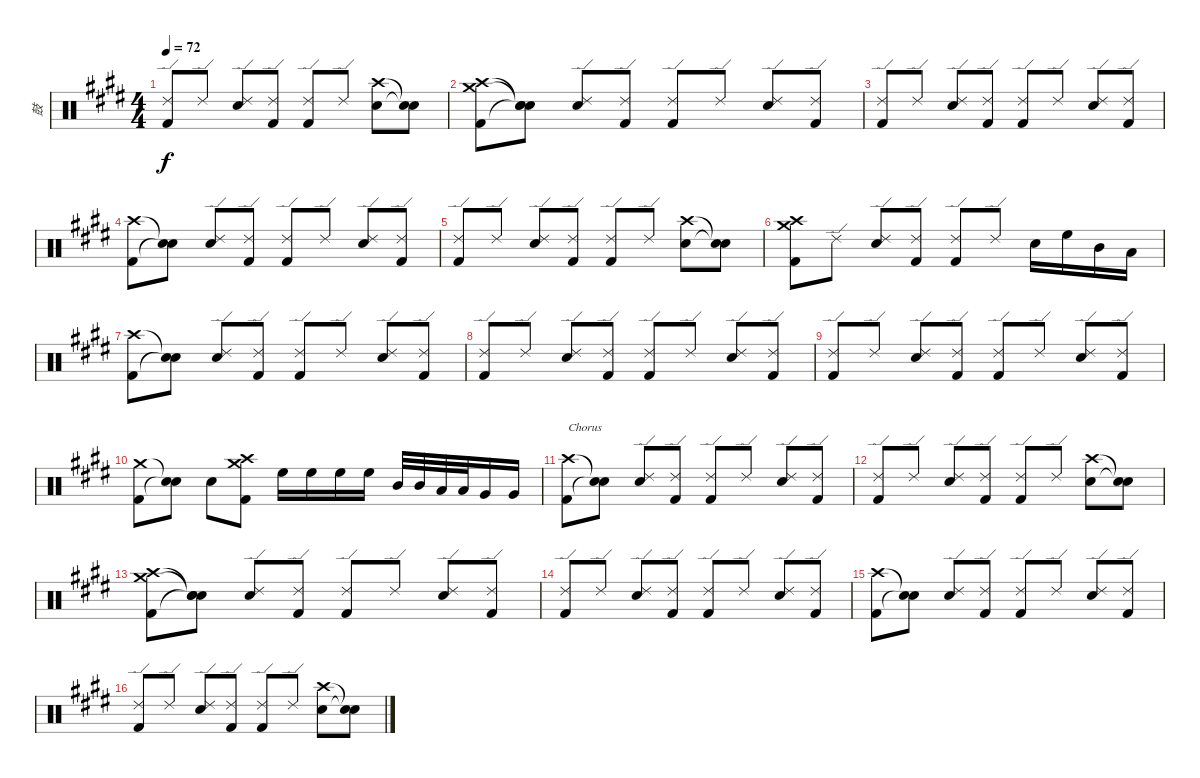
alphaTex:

\track ("鼓" "鼓") {instrument percussion}
\staff {score}
\articulation defaults
\ts (4 4)
\tempo 72
\clef neutral
\ks e
("Ride (edge) 2" "Kick (hit) 2").8{dy f} "Ride (edge) 2".8 ("Ride (edge) 2" "Electric Snare (hit)").8 ("Ride (edge) 2" "Kick (hit) 2").8 ("Ride (edge) 2" "Kick (hit) 2").8 "Ride (edge) 2".8 ("Crash high (hit)" "Electric Snare (hit)").8 ("Snare (hit)"{t} "Snare (hit)"{t}).8 |
("Crash high (hit)" "Crash medium (hit)" "Kick (hit) 2").8 ("Snare (hit)"{t} "Snare (hit)"{t} "Snare (hit)"{t}).8 ("Ride (edge) 2" "Electric Snare (hit)").8 ("Ride (edge) 2" "Kick (hit) 2").8 ("Ride (edge) 2" "Kick (hit) 2").8 "Ride (edge) 2".8 ("Ride (edge) 2" "Electric Snare (hit)").8 ("Ride (edge) 2" "Kick (hit) 2").8 |
("Ride (edge) 2" "Kick (hit) 2").8 "Ride (edge) 2".8 ("Ride (edge) 2" "Electric Snare (hit)").8 ("Ride (edge) 2" "Kick (hit) 2").8 ("Ride (edge) 2" "Kick (hit) 2").8 "Ride (edge) 2".8 ("Ride (edge) 2" "Electric Snare (hit)").8 ("Ride (edge) 2" "Kick (hit) 2").8 |
("Crash high (hit)" "Kick (hit) 2").8 ("Snare (hit)"{t} "Snare (hit)"{t}).8 ("Ride (edge) 2" "Electric Snare (hit)").8 ("Ride (edge) 2" "Kick (hit) 2").8 ("Ride (edge) 2" "Kick (hit) 2").8 "Ride (edge) 2".8 ("Ride (edge) 2" "Electric Snare (hit)").8 ("Ride (edge) 2" "Kick (hit) 2").8 |
("Ride (edge) 2" "Kick (hit) 2").8 "Ride (edge) 2".8 ("Ride (edge) 2" "Electric Snare (hit)").8 ("Ride (edge) 2" "Kick (hit) 2").8 ("Ride (edge) 2" "Kick (hit) 2").8 "Ride (edge) 2".8 ("Crash high (hit)" "Electric Snare (hit)").8 ("Snare (hit)"{t} "Snare (hit)"{t}).8 |
("Crash high (hit)" "Crash medium (hit)" "Kick (hit) 2").8 "Ride (edge) 2".8 ("Ride (edge) 2" "Electric Snare (hit)").8 ("Ride (edge) 2" "Kick (hit) 2").8 ("Ride (edge) 2" "Kick (hit) 2").8 "Ride (edge) 2".8 "Electric Snare (hit)".16 "High Floor Tom (hit)".16 "Mid Tom (hit)".16 "Low Tom (hit)".16 |
("Crash high (hit)" "Kick (hit) 2").8 ("Snare (hit)"{t} "Snare (hit)"{t}).8 ("Ride (edge) 2" "Electric Snare (hit)").8 ("Ride (edge) 2" "Kick (hit) 2").8 ("Ride (edge) 2" "Kick (hit) 2").8 "Ride (edge) 2".8 ("Ride (edge) 2" "Electric Snare (hit)").8 ("Ride (edge) 2" "Kick (hit) 2").8 |
("Ride (edge) 2" "Kick (hit) 2").8 "Ride (edge) 2".8 ("Ride (edge) 2" "Electric Snare (hit)").8 ("Ride (edge) 2" "Kick (hit) 2").8 ("Ride (edge) 2" "Kick (hit) 2").8 "Ride (edge) 2".8 ("Ride (edge) 2" "Electric Snare (hit)").8 ("Ride (edge) 2" "Kick (hit) 2").8 |
("Ride (edge) 2" "Kick (hit) 2").8 "Ride (edge) 2".8 ("Ride (edge) 2" "Electric Snare (hit)").8 ("Ride (edge) 2" "Kick (hit) 2").8 ("Ride (edge) 2" "Kick (hit) 2").8 "Ride (edge) 2".8 ("Ride (edge) 2" "Electric Snare (hit)").8 ("Ride (edge) 2" "Kick (hit) 2").8 |
("Crash medium (hit)" "Kick (hit) 2").8 ("Snare (hit)"{t} "Snare (hit)"{t}).8 "Electric Snare (hit)".8 ("Crash high (hit)" "Crash medium (hit)" "Kick (hit) 2").8 "High Floor Tom (hit)".16 "High Floor Tom (hit)".16 "High Floor Tom (hit)".16 "High Floor Tom (hit)".16 "Mid Tom (hit)".32 "Mid Tom (hit)".32 "Low Tom (hit)".32 "Low Tom (hit)".32 "Very Low Tom (hit)".16 "Very Low Tom (hit)".16 |
("Crash high (hit)" "Kick (hit) 2").8{txt "Chorus"} ("Snare (hit)"{t} "Snare (hit)"{t}).8 ("Ride (edge) 2" "Electric Snare (hit)").8 ("Ride (edge) 2" "Kick (hit) 2").8 ("Ride (edge) 2" "Kick (hit) 2").8 "Ride (edge) 2".8 ("Ride (edge) 2" "Electric Snare (hit)").8 ("Ride (edge) 2" "Kick (hit) 2").8 |
("Ride (edge) 2" "Kick (hit) 2").8 "Ride (edge) 2".8 ("Ride (edge) 2" "Electric Snare (hit)").8 ("Ride (edge) 2" "Kick (hit) 2").8 ("Ride (edge) 2" "Kick (hit) 2").8 "Ride (edge) 2".8 ("Crash high (hit)" "Electric Snare (hit)").8 ("Snare (hit)"{t} "Snare (hit)"{t}).8 |
("Crash high (hit)" "Crash medium (hit)" "Kick (hit) 2").8 ("Snare (hit)"{t} "Snare (hit)"{t} "Snare (hit)"{t}).8 ("Ride (edge) 2" "Electric Snare (hit)").8 ("Ride (edge) 2" "Kick (hit) 2").8 ("Ride (edge) 2" "Kick (hit) 2").8 "Ride (edge) 2".8 ("Ride (edge) 2" "Electric Snare (hit)").8 ("Ride (edge) 2" "Kick (hit) 2").8 |
("Ride (edge) 2" "Kick (hit) 2").8 "Ride (edge) 2".8 ("Ride (edge) 2" "Electric Snare (hit)").8 ("Ride (edge) 2" "Kick (hit) 2").8 ("Ride (edge) 2" "Kick (hit) 2").8 "Ride (edge) 2".8 ("Ride (edge) 2" "Electric Snare (hit)").8 ("Ride (edge) 2" "Kick (hit) 2").8 |
("Crash high (hit)" "Kick (hit) 2").8 ("Snare (hit)"{t} "Snare (hit)"{t}).8 ("Ride (edge) 2" "Electric Snare (hit)").8 ("Ride (edge) 2" "Kick (hit) 2").8 ("Ride (edge) 2" "Kick (hit) 2").8 "Ride (edge) 2".8 ("Ride (edge) 2" "Electric Snare (hit)").8 ("Ride (edge) 2" "Kick (hit) 2").8 |
("Ride (edge) 2" "Kick (hit) 2").8 "Ride (edge) 2".8 ("Ride (edge) 2" "Electric Snare (hit)").8 ("Ride (edge) 2" "Kick (hit) 2").8 ("Ride (edge) 2" "Kick (hit) 2").8 "Ride (edge) 2".8 ("Crash high (hit)" "Electric Snare (hit)").8 ("Snare (hit)"{t} "Snare (hit)"{t}).8
